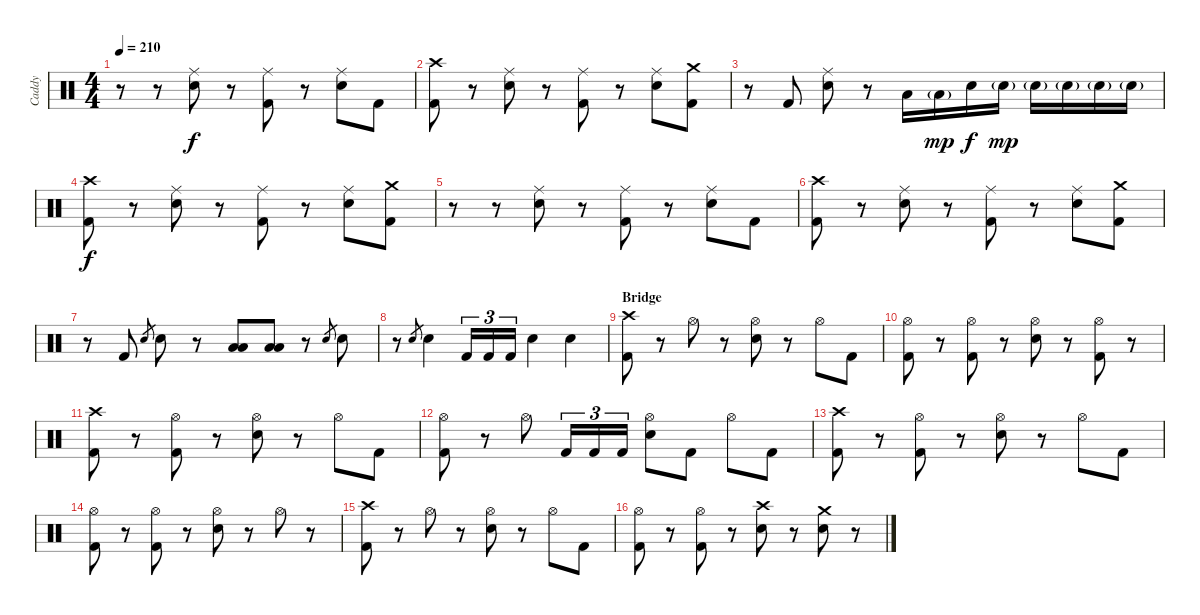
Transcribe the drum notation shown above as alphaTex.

\track ("Caddy" "Caddy") {instrument percussion}
\staff {score}
\articulation defaults
\ts (4 4)
\tempo 210
\clef neutral
\ks c
r.8{dy f} r.8 ("Ride (middle)" "Electric Snare (hit)").8 r.8 ("Ride (middle)" "Kick (hit) 2").8 r.8 ("Ride (middle)" "Electric Snare (hit)").8 "Kick (hit) 2".8 |
("Crash high (hit)" "Kick (hit) 2").8 r.8 ("Ride (middle)" "Electric Snare (hit)").8 r.8 ("Ride (middle)" "Kick (hit) 2").8 r.8 ("Ride (middle)" "Electric Snare (hit)").8 ("Crash medium (hit)" "Kick (hit) 2").8 |
r.8 "Kick (hit) 2".8 ("Ride (middle)" "Electric Snare (hit)").8 r.8 "Low Tom (hit)".16 "Low Tom (hit)"{g}.16{dy mp} "Electric Snare (hit)".16{dy f} "Electric Snare (hit)"{g}.16{dy mp} "Electric Snare (hit)"{g}.16 "Electric Snare (hit)"{g}.16 "Electric Snare (hit)"{g}.16 "Electric Snare (hit)"{g}.16 |
("Crash high (hit)" "Kick (hit) 2").8{dy f} r.8 ("Ride (middle)" "Electric Snare (hit)").8 r.8 ("Ride (middle)" "Kick (hit) 2").8 r.8 ("Ride (middle)" "Electric Snare (hit)").8 ("Crash medium (hit)" "Kick (hit) 2").8 |
r.8 r.8 ("Ride (middle)" "Electric Snare (hit)").8 r.8 ("Ride (middle)" "Kick (hit) 2").8 r.8 ("Ride (middle)" "Electric Snare (hit)").8 "Kick (hit) 2".8 |
("Crash high (hit)" "Kick (hit) 2").8 r.8 ("Ride (middle)" "Electric Snare (hit)").8 r.8 ("Ride (middle)" "Kick (hit) 2").8 r.8 ("Ride (middle)" "Electric Snare (hit)").8 ("Crash medium (hit)" "Kick (hit) 2").8 |
r.8 "Kick (hit) 2".8 "Electric Snare (hit)".8{gr} "Electric Snare (hit)".8 r.8 ("Low Tom (hit)" "Low Floor Tom (hit)").8 ("Low Tom (hit)" "Low Floor Tom (hit)").8 r.8 "Electric Snare (hit)".8{gr} "Electric Snare (hit)".8 |
r.8 "Electric Snare (hit)".8{gr} "Electric Snare (hit)".4 "Kick (hit) 2".16{tu (3 2)} "Kick (hit) 2".16{tu (3 2)} "Kick (hit) 2".16{tu (3 2)} "Electric Snare (hit)".4 "Electric Snare (hit)".4 |
\section ("" "Bridge")
("Crash high (hit)" "Kick (hit) 2").8 r.8 "Hi-Hat (open)".8 r.8 ("Hi-Hat (open)" "Electric Snare (hit)").8 r.8 "Hi-Hat (open)".8 "Kick (hit) 2".8 |
("Hi-Hat (open)" "Kick (hit) 2").8 r.8 ("Hi-Hat (open)" "Kick (hit) 2").8 r.8 ("Hi-Hat (open)" "Electric Snare (hit)").8 r.8 ("Hi-Hat (open)" "Kick (hit) 2").8 r.8 |
("Crash high (hit)" "Kick (hit) 2").8 r.8 ("Hi-Hat (open)" "Kick (hit) 2").8 r.8 ("Hi-Hat (open)" "Electric Snare (hit)").8 r.8 "Hi-Hat (open)".8 "Kick (hit) 2".8 |
("Hi-Hat (open)" "Kick (hit) 2").8 r.8 "Hi-Hat (open)".8 "Kick (hit) 2".16{tu (3 2)} "Kick (hit) 2".16{tu (3 2)} "Kick (hit) 2".16{tu (3 2)} ("Hi-Hat (open)" "Electric Snare (hit)").8 "Kick (hit) 2".8 "Hi-Hat (open)".8 "Kick (hit) 2".8 |
("Crash high (hit)" "Kick (hit) 2").8 r.8 ("Hi-Hat (open)" "Kick (hit) 2").8 r.8 ("Hi-Hat (open)" "Electric Snare (hit)").8 r.8 "Hi-Hat (open)".8 "Kick (hit) 2".8 |
("Hi-Hat (open)" "Kick (hit) 2").8 r.8 ("Hi-Hat (open)" "Kick (hit) 2").8 r.8 ("Hi-Hat (open)" "Electric Snare (hit)").8 r.8 "Hi-Hat (open)".8 r.8 |
("Crash high (hit)" "Kick (hit) 2").8 r.8 "Hi-Hat (open)".8 r.8 ("Hi-Hat (open)" "Electric Snare (hit)").8 r.8 "Hi-Hat (open)".8 "Kick (hit) 2".8 |
("Hi-Hat (open)" "Kick (hit) 2").8 r.8 ("Hi-Hat (open)" "Kick (hit) 2").8 r.8 ("Crash high (hit)" "Electric Snare (hit)").8 r.8 ("Crash medium (hit)" "Electric Snare (hit)").8 r.8
